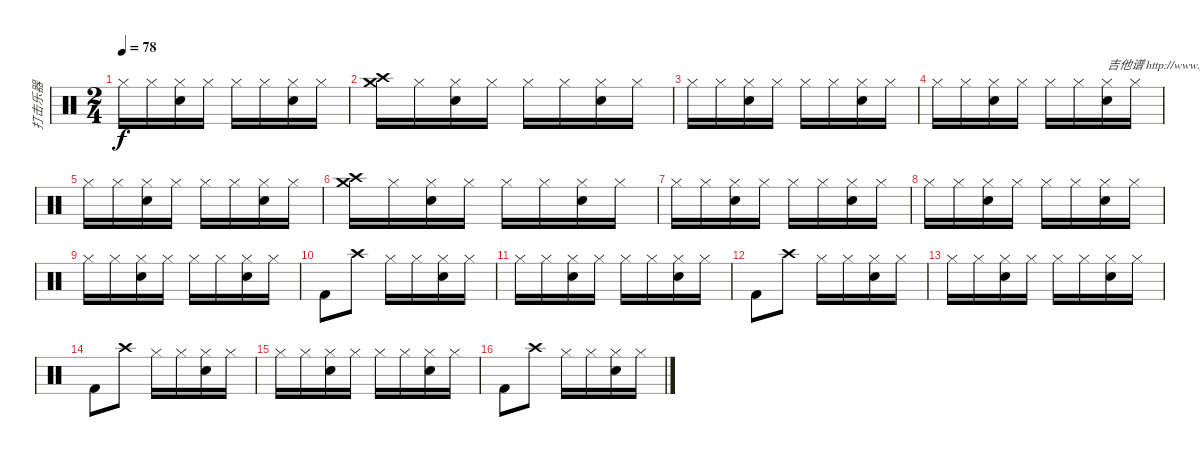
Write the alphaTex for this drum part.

\track ("打击乐器" "打击乐器") {instrument percussion}
\staff {score}
\articulation defaults
\ts (2 4)
\tempo 78
\clef neutral
\ks c "Hi-Hat (closed)".16{dy f} "Hi-Hat (closed)".16
("Hi-Hat (closed)" "Snare (hit) 2").16 "Hi-Hat (closed)".16 "Hi-Hat (closed)".16 "Hi-Hat (closed)".16 ("Hi-Hat (closed)" "Snare (hit) 2").16 "Hi-Hat (closed)".16 |
("Crash high (hit)" "Crash medium (hit)").16 "Hi-Hat (closed)".16 ("Hi-Hat (closed)" "Snare (hit) 2").16 "Hi-Hat (closed)".16 "Hi-Hat (closed)".16 "Hi-Hat (closed)".16 ("Hi-Hat (closed)" "Snare (hit) 2").16 "Hi-Hat (closed)".16 |
"Hi-Hat (closed)".16 "Hi-Hat (closed)".16 ("Hi-Hat (closed)" "Snare (hit) 2").16 "Hi-Hat (closed)".16 "Hi-Hat (closed)".16 "Hi-Hat (closed)".16 ("Hi-Hat (closed)" "Snare (hit) 2").16 "Hi-Hat (closed)".16 |
"Hi-Hat (closed)".16 "Hi-Hat (closed)".16 ("Hi-Hat (closed)" "Snare (hit) 2").16 "Hi-Hat (closed)".16 "Hi-Hat (closed)".16 "Hi-Hat (closed)".16 ("Hi-Hat (closed)" "Snare (hit) 2").16{txt "吉他谱 http://www.jitapu.com"} "Hi-Hat (closed)".16 |
"Hi-Hat (closed)".16 "Hi-Hat (closed)".16 ("Hi-Hat (closed)" "Snare (hit) 2").16 "Hi-Hat (closed)".16 "Hi-Hat (closed)".16 "Hi-Hat (closed)".16 ("Hi-Hat (closed)" "Snare (hit) 2").16 "Hi-Hat (closed)".16 |
("Crash high (hit)" "Crash medium (hit)").16 "Hi-Hat (closed)".16 ("Hi-Hat (closed)" "Snare (hit) 2").16 "Hi-Hat (closed)".16 "Hi-Hat (closed)".16 "Hi-Hat (closed)".16 ("Hi-Hat (closed)" "Snare (hit) 2").16 "Hi-Hat (closed)".16 |
"Hi-Hat (closed)".16 "Hi-Hat (closed)".16 ("Hi-Hat (closed)" "Snare (hit) 2").16 "Hi-Hat (closed)".16 "Hi-Hat (closed)".16 "Hi-Hat (closed)".16 ("Hi-Hat (closed)" "Snare (hit) 2").16 "Hi-Hat (closed)".16 |
"Hi-Hat (closed)".16 "Hi-Hat (closed)".16 ("Hi-Hat (closed)" "Snare (hit) 2").16 "Hi-Hat (closed)".16 "Hi-Hat (closed)".16 "Hi-Hat (closed)".16 ("Hi-Hat (closed)" "Snare (hit) 2").16 "Hi-Hat (closed)".16 |
"Hi-Hat (closed)".16 "Hi-Hat (closed)".16 ("Hi-Hat (closed)" "Snare (hit) 2").16 "Hi-Hat (closed)".16 "Hi-Hat (closed)".16 "Hi-Hat (closed)".16 ("Hi-Hat (closed)" "Snare (hit) 2").16 "Hi-Hat (closed)".16 |
"Kick (hit) 2".8 "Crash high (hit)".8 "Hi-Hat (closed)".16 "Hi-Hat (closed)".16 ("Hi-Hat (closed)" "Snare (hit) 2").16 "Hi-Hat (closed)".16 |
"Hi-Hat (closed)".16 "Hi-Hat (closed)".16 ("Hi-Hat (closed)" "Snare (hit) 2").16 "Hi-Hat (closed)".16 "Hi-Hat (closed)".16 "Hi-Hat (closed)".16 ("Hi-Hat (closed)" "Snare (hit) 2").16 "Hi-Hat (closed)".16 |
"Kick (hit) 2".8 "Crash high (hit)".8 "Hi-Hat (closed)".16 "Hi-Hat (closed)".16 ("Hi-Hat (closed)" "Snare (hit) 2").16 "Hi-Hat (closed)".16 |
"Hi-Hat (closed)".16 "Hi-Hat (closed)".16 ("Hi-Hat (closed)" "Snare (hit) 2").16 "Hi-Hat (closed)".16 "Hi-Hat (closed)".16 "Hi-Hat (closed)".16 ("Hi-Hat (closed)" "Snare (hit) 2").16 "Hi-Hat (closed)".16 |
"Kick (hit) 2".8 "Crash high (hit)".8 "Hi-Hat (closed)".16 "Hi-Hat (closed)".16 ("Hi-Hat (closed)" "Snare (hit) 2").16 "Hi-Hat (closed)".16 |
"Hi-Hat (closed)".16 "Hi-Hat (closed)".16 ("Hi-Hat (closed)" "Snare (hit) 2").16 "Hi-Hat (closed)".16 "Hi-Hat (closed)".16 "Hi-Hat (closed)".16 ("Hi-Hat (closed)" "Snare (hit) 2").16 "Hi-Hat (closed)".16 |
"Kick (hit) 2".8 "Crash high (hit)".8 "Hi-Hat (closed)".16 "Hi-Hat (closed)".16 ("Hi-Hat (closed)" "Snare (hit) 2").16 "Hi-Hat (closed)".16
